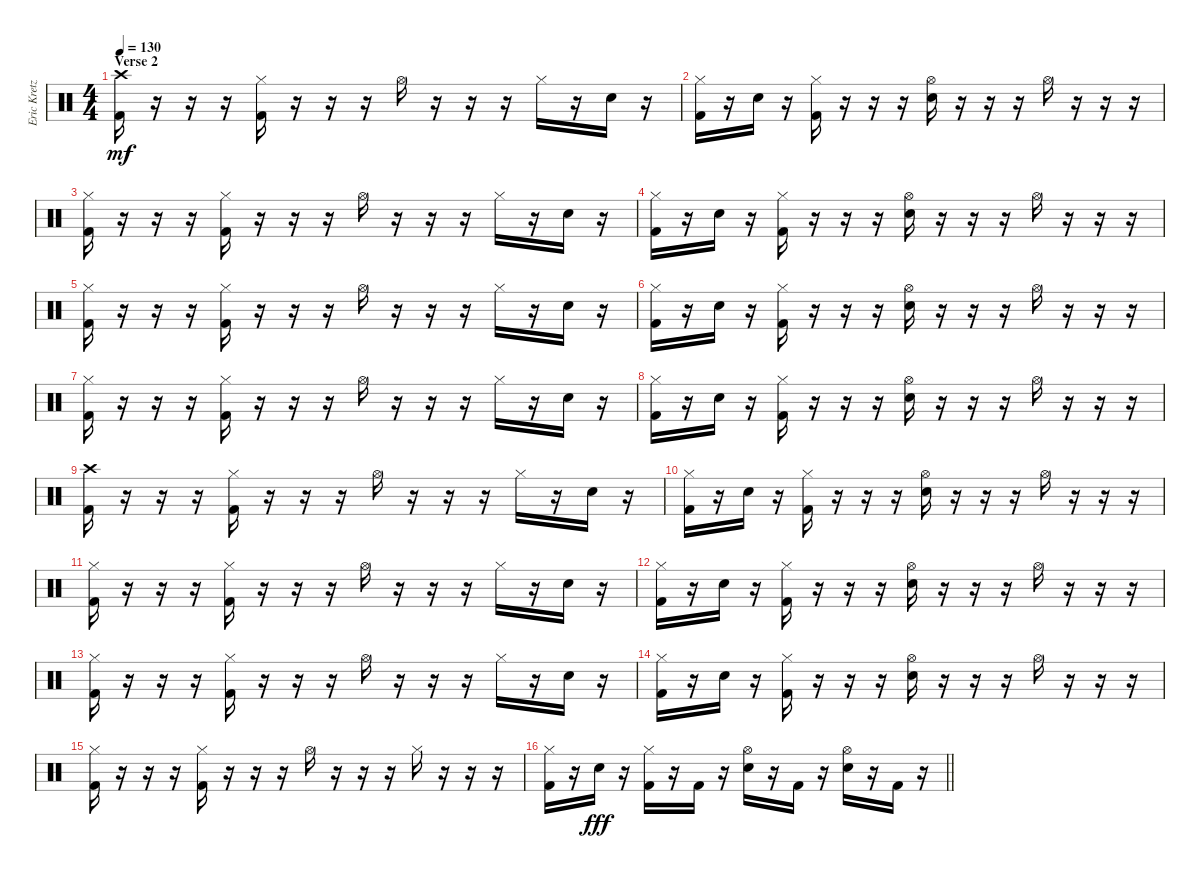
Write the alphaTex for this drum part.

\track ("Eric Kretz (Drums)" "Eric Kretz") {instrument percussion}
\staff {score}
\articulation defaults
\ts (4 4)
\section ("" "Verse 2")
\tempo 130
\clef neutral
\ks c
("Crash high (hit)" "Kick (hit) 2").16{dy mf} r.16 r.16 r.16 ("Hi-Hat (closed)" "Kick (hit) 2").16 r.16 r.16 r.16 "Hi-Hat (open)".16 r.16 r.16 r.16 "Hi-Hat (closed)".16 r.16 "Electric Snare (hit)".16 r.16 |
("Hi-Hat (closed)" "Kick (hit) 2").16 r.16 "Electric Snare (hit)".16 r.16 ("Hi-Hat (closed)" "Kick (hit) 2").16 r.16 r.16 r.16 ("Hi-Hat (open)" "Electric Snare (hit)").16 r.16 r.16 r.16 "Hi-Hat (open)".16 r.16 r.16 r.16 |
("Hi-Hat (closed)" "Kick (hit) 2").16 r.16 r.16 r.16 ("Hi-Hat (closed)" "Kick (hit) 2").16 r.16 r.16 r.16 "Hi-Hat (open)".16 r.16 r.16 r.16 "Hi-Hat (closed)".16 r.16 "Electric Snare (hit)".16 r.16 |
("Hi-Hat (closed)" "Kick (hit) 2").16 r.16 "Electric Snare (hit)".16 r.16 ("Hi-Hat (closed)" "Kick (hit) 2").16 r.16 r.16 r.16 ("Hi-Hat (open)" "Electric Snare (hit)").16 r.16 r.16 r.16 "Hi-Hat (open)".16 r.16 r.16 r.16 |
("Hi-Hat (closed)" "Kick (hit) 2").16 r.16 r.16 r.16 ("Hi-Hat (closed)" "Kick (hit) 2").16 r.16 r.16 r.16 "Hi-Hat (open)".16 r.16 r.16 r.16 "Hi-Hat (closed)".16 r.16 "Electric Snare (hit)".16 r.16 |
("Hi-Hat (closed)" "Kick (hit) 2").16 r.16 "Electric Snare (hit)".16 r.16 ("Hi-Hat (closed)" "Kick (hit) 2").16 r.16 r.16 r.16 ("Hi-Hat (open)" "Electric Snare (hit)").16 r.16 r.16 r.16 "Hi-Hat (open)".16 r.16 r.16 r.16 |
("Hi-Hat (closed)" "Kick (hit) 2").16 r.16 r.16 r.16 ("Hi-Hat (closed)" "Kick (hit) 2").16 r.16 r.16 r.16 "Hi-Hat (open)".16 r.16 r.16 r.16 "Hi-Hat (closed)".16 r.16 "Electric Snare (hit)".16 r.16 |
("Hi-Hat (closed)" "Kick (hit) 2").16 r.16 "Electric Snare (hit)".16 r.16 ("Hi-Hat (closed)" "Kick (hit) 2").16 r.16 r.16 r.16 ("Hi-Hat (open)" "Electric Snare (hit)").16 r.16 r.16 r.16 "Hi-Hat (open)".16 r.16 r.16 r.16 |
("Crash high (hit)" "Kick (hit) 2").16 r.16 r.16 r.16 ("Hi-Hat (closed)" "Kick (hit) 2").16 r.16 r.16 r.16 "Hi-Hat (open)".16 r.16 r.16 r.16 "Hi-Hat (closed)".16 r.16 "Electric Snare (hit)".16 r.16 |
("Hi-Hat (closed)" "Kick (hit) 2").16 r.16 "Electric Snare (hit)".16 r.16 ("Hi-Hat (closed)" "Kick (hit) 2").16 r.16 r.16 r.16 ("Hi-Hat (open)" "Electric Snare (hit)").16 r.16 r.16 r.16 "Hi-Hat (open)".16 r.16 r.16 r.16 |
("Hi-Hat (closed)" "Kick (hit) 2").16 r.16 r.16 r.16 ("Hi-Hat (closed)" "Kick (hit) 2").16 r.16 r.16 r.16 "Hi-Hat (open)".16 r.16 r.16 r.16 "Hi-Hat (closed)".16 r.16 "Electric Snare (hit)".16 r.16 |
("Hi-Hat (closed)" "Kick (hit) 2").16 r.16 "Electric Snare (hit)".16 r.16 ("Hi-Hat (closed)" "Kick (hit) 2").16 r.16 r.16 r.16 ("Hi-Hat (open)" "Electric Snare (hit)").16 r.16 r.16 r.16 "Hi-Hat (open)".16 r.16 r.16 r.16 |
("Hi-Hat (closed)" "Kick (hit) 2").16 r.16 r.16 r.16 ("Hi-Hat (closed)" "Kick (hit) 2").16 r.16 r.16 r.16 "Hi-Hat (open)".16 r.16 r.16 r.16 "Hi-Hat (closed)".16 r.16 "Electric Snare (hit)".16 r.16 |
("Hi-Hat (closed)" "Kick (hit) 2").16 r.16 "Electric Snare (hit)".16 r.16 ("Hi-Hat (closed)" "Kick (hit) 2").16 r.16 r.16 r.16 ("Hi-Hat (open)" "Electric Snare (hit)").16 r.16 r.16 r.16 "Hi-Hat (open)".16 r.16 r.16 r.16 |
("Hi-Hat (closed)" "Kick (hit) 2").16 r.16 r.16 r.16 ("Hi-Hat (closed)" "Kick (hit) 2").16 r.16 r.16 r.16 "Hi-Hat (open)".16 r.16 r.16 r.16 "Hi-Hat (closed)".16 r.16 r.16 r.16 |
\barLineRight lightlight
("Hi-Hat (closed)" "Kick (hit) 2").16 r.16 "Electric Snare (hit)".16{dy fff} r.16 ("Hi-Hat (closed)" "Kick (hit) 2").16 r.16 "Kick (hit) 2".16 r.16 ("Hi-Hat (open)" "Electric Snare (hit)").16 r.16 "Kick (hit) 2".16 r.16 ("Hi-Hat (open)" "Electric Snare (hit)").16 r.16 "Kick (hit) 2".16 r.16
